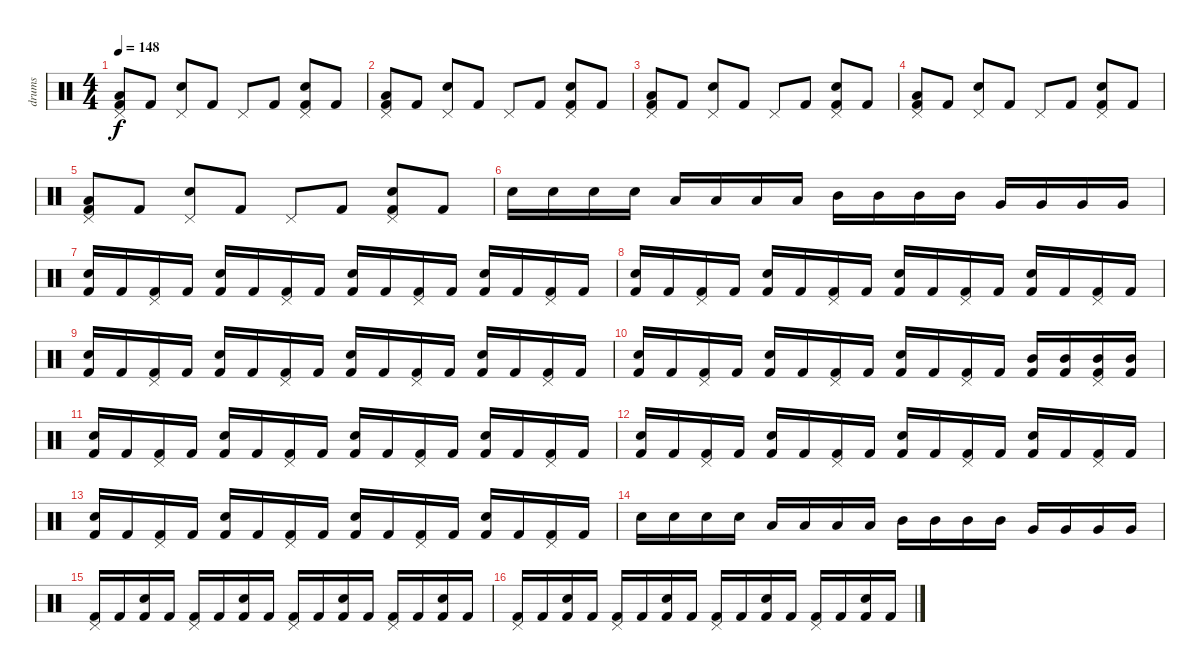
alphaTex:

\track ("drums" "drums") {instrument percussion}
\staff {score}
\articulation defaults
\ts (4 4)
\tempo 148
\clef neutral
\ks c
("Pedal Hi-Hat (hit)" "Low Floor Tom (hit)" "Kick (hit) 2").8{dy f} "Kick (hit) 2".8 ("Pedal Hi-Hat (hit)" "Snare (hit) 2").8 "Kick (hit) 2".8 "Pedal Hi-Hat (hit)".8 "Kick (hit) 2".8 ("Pedal Hi-Hat (hit)" "Snare (hit) 2" "Kick (hit) 2").8 "Kick (hit) 2".8 |
("Pedal Hi-Hat (hit)" "Low Floor Tom (hit)" "Kick (hit) 2").8 "Kick (hit) 2".8 ("Pedal Hi-Hat (hit)" "Snare (hit) 2").8 "Kick (hit) 2".8 "Pedal Hi-Hat (hit)".8 "Kick (hit) 2".8 ("Pedal Hi-Hat (hit)" "Snare (hit) 2" "Kick (hit) 2").8 "Kick (hit) 2".8 |
("Pedal Hi-Hat (hit)" "Low Floor Tom (hit)" "Kick (hit) 2").8 "Kick (hit) 2".8 ("Pedal Hi-Hat (hit)" "Snare (hit) 2").8 "Kick (hit) 2".8 "Pedal Hi-Hat (hit)".8 "Kick (hit) 2".8 ("Pedal Hi-Hat (hit)" "Snare (hit) 2" "Kick (hit) 2").8 "Kick (hit) 2".8 |
("Pedal Hi-Hat (hit)" "Low Floor Tom (hit)" "Kick (hit) 2").8 "Kick (hit) 2".8 ("Pedal Hi-Hat (hit)" "Snare (hit) 2").8 "Kick (hit) 2".8 "Pedal Hi-Hat (hit)".8 "Kick (hit) 2".8 ("Pedal Hi-Hat (hit)" "Snare (hit) 2" "Kick (hit) 2").8 "Kick (hit) 2".8 |
("Pedal Hi-Hat (hit)" "Low Floor Tom (hit)" "Kick (hit) 2").8 "Kick (hit) 2".8 ("Pedal Hi-Hat (hit)" "Snare (hit) 2").8 "Kick (hit) 2".8 "Pedal Hi-Hat (hit)".8 "Kick (hit) 2".8 ("Pedal Hi-Hat (hit)" "Snare (hit) 2" "Kick (hit) 2").8 "Kick (hit) 2".8 |
"Snare (hit) 2".16 "Snare (hit) 2".16 "Snare (hit) 2".16 "Snare (hit) 2".16 "Low Tom (hit)".16 "Low Tom (hit)".16 "Low Tom (hit)".16 "Low Tom (hit)".16 "Mid Tom (hit)".16 "Mid Tom (hit)".16 "Mid Tom (hit)".16 "Mid Tom (hit)".16 "Very Low Tom (hit)".16 "Very Low Tom (hit)".16 "Very Low Tom (hit)".16 "Very Low Tom (hit)".16 |
("Snare (hit) 2" "Kick (hit) 2").16 "Kick (hit) 2".16 ("Pedal Hi-Hat (hit)" "Kick (hit) 2").16 "Kick (hit) 2".16 ("Electric Snare (hit)" "Kick (hit) 2").16 "Kick (hit) 2".16 ("Pedal Hi-Hat (hit)" "Kick (hit) 2").16 "Kick (hit) 2".16 ("Snare (hit) 2" "Kick (hit) 2").16 "Kick (hit) 2".16 ("Pedal Hi-Hat (hit)" "Kick (hit) 2").16 "Kick (hit) 2".16 ("Electric Snare (hit)" "Kick (hit) 2").16 "Kick (hit) 2".16 ("Pedal Hi-Hat (hit)" "Kick (hit) 2").16 "Kick (hit) 2".16 |
("Snare (hit) 2" "Kick (hit) 2").16 "Kick (hit) 2".16 ("Pedal Hi-Hat (hit)" "Kick (hit) 2").16 "Kick (hit) 2".16 ("Electric Snare (hit)" "Kick (hit) 2").16 "Kick (hit) 2".16 ("Pedal Hi-Hat (hit)" "Kick (hit) 2").16 "Kick (hit) 2".16 ("Snare (hit) 2" "Kick (hit) 2").16 "Kick (hit) 2".16 ("Pedal Hi-Hat (hit)" "Kick (hit) 2").16 "Kick (hit) 2".16 ("Electric Snare (hit)" "Kick (hit) 2").16 "Kick (hit) 2".16 ("Pedal Hi-Hat (hit)" "Kick (hit) 2").16 "Kick (hit) 2".16 |
("Snare (hit) 2" "Kick (hit) 2").16 "Kick (hit) 2".16 ("Pedal Hi-Hat (hit)" "Kick (hit) 2").16 "Kick (hit) 2".16 ("Electric Snare (hit)" "Kick (hit) 2").16 "Kick (hit) 2".16 ("Pedal Hi-Hat (hit)" "Kick (hit) 2").16 "Kick (hit) 2".16 ("Snare (hit) 2" "Kick (hit) 2").16 "Kick (hit) 2".16 ("Pedal Hi-Hat (hit)" "Kick (hit) 2").16 "Kick (hit) 2".16 ("Electric Snare (hit)" "Kick (hit) 2").16 "Kick (hit) 2".16 ("Pedal Hi-Hat (hit)" "Kick (hit) 2").16 "Kick (hit) 2".16 |
("Snare (hit) 2" "Kick (hit) 2").16 "Kick (hit) 2".16 ("Pedal Hi-Hat (hit)" "Kick (hit) 2").16 "Kick (hit) 2".16 ("Electric Snare (hit)" "Kick (hit) 2").16 "Kick (hit) 2".16 ("Pedal Hi-Hat (hit)" "Kick (hit) 2").16 "Kick (hit) 2".16 ("Snare (hit) 2" "Kick (hit) 2").16 "Kick (hit) 2".16 ("Pedal Hi-Hat (hit)" "Kick (hit) 2").16 "Kick (hit) 2".16 ("Mid Tom (hit)" "Kick (hit) 2").16 ("Mid Tom (hit)" "Kick (hit) 2").16 ("Pedal Hi-Hat (hit)" "Mid Tom (hit)" "Kick (hit) 2").16 ("Mid Tom (hit)" "Kick (hit) 2").16 |
("Snare (hit) 2" "Kick (hit) 2").16 "Kick (hit) 2".16 ("Pedal Hi-Hat (hit)" "Kick (hit) 2").16 "Kick (hit) 2".16 ("Electric Snare (hit)" "Kick (hit) 2").16 "Kick (hit) 2".16 ("Pedal Hi-Hat (hit)" "Kick (hit) 2").16 "Kick (hit) 2".16 ("Snare (hit) 2" "Kick (hit) 2").16 "Kick (hit) 2".16 ("Pedal Hi-Hat (hit)" "Kick (hit) 2").16 "Kick (hit) 2".16 ("Electric Snare (hit)" "Kick (hit) 2").16 "Kick (hit) 2".16 ("Pedal Hi-Hat (hit)" "Kick (hit) 2").16 "Kick (hit) 2".16 |
("Snare (hit) 2" "Kick (hit) 2").16 "Kick (hit) 2".16 ("Pedal Hi-Hat (hit)" "Kick (hit) 2").16 "Kick (hit) 2".16 ("Electric Snare (hit)" "Kick (hit) 2").16 "Kick (hit) 2".16 ("Pedal Hi-Hat (hit)" "Kick (hit) 2").16 "Kick (hit) 2".16 ("Snare (hit) 2" "Kick (hit) 2").16 "Kick (hit) 2".16 ("Pedal Hi-Hat (hit)" "Kick (hit) 2").16 "Kick (hit) 2".16 ("Electric Snare (hit)" "Kick (hit) 2").16 "Kick (hit) 2".16 ("Pedal Hi-Hat (hit)" "Kick (hit) 2").16 "Kick (hit) 2".16 |
("Snare (hit) 2" "Kick (hit) 2").16 "Kick (hit) 2".16 ("Pedal Hi-Hat (hit)" "Kick (hit) 2").16 "Kick (hit) 2".16 ("Electric Snare (hit)" "Kick (hit) 2").16 "Kick (hit) 2".16 ("Pedal Hi-Hat (hit)" "Kick (hit) 2").16 "Kick (hit) 2".16 ("Snare (hit) 2" "Kick (hit) 2").16 "Kick (hit) 2".16 ("Pedal Hi-Hat (hit)" "Kick (hit) 2").16 "Kick (hit) 2".16 ("Electric Snare (hit)" "Kick (hit) 2").16 "Kick (hit) 2".16 ("Pedal Hi-Hat (hit)" "Kick (hit) 2").16 "Kick (hit) 2".16 |
"Snare (hit) 2".16 "Snare (hit) 2".16 "Snare (hit) 2".16 "Snare (hit) 2".16 "Low Tom (hit)".16 "Low Tom (hit)".16 "Low Tom (hit)".16 "Low Tom (hit)".16 "Mid Tom (hit)".16 "Mid Tom (hit)".16 "Mid Tom (hit)".16 "Mid Tom (hit)".16 "Very Low Tom (hit)".16 "Very Low Tom (hit)".16 "Very Low Tom (hit)".16 "Very Low Tom (hit)".16 |
("Pedal Hi-Hat (hit)" "Kick (hit) 2").16 "Kick (hit) 2".16 ("Electric Snare (hit)" "Kick (hit) 2").16 "Kick (hit) 2".16 ("Pedal Hi-Hat (hit)" "Kick (hit) 2").16 "Kick (hit) 2".16 ("Electric Snare (hit)" "Kick (hit) 2").16 "Kick (hit) 2".16 ("Pedal Hi-Hat (hit)" "Kick (hit) 2").16 "Kick (hit) 2".16 ("Electric Snare (hit)" "Kick (hit) 2").16 "Kick (hit) 2".16 ("Pedal Hi-Hat (hit)" "Kick (hit) 2").16 "Kick (hit) 2".16 ("Electric Snare (hit)" "Kick (hit) 2").16 "Kick (hit) 2".16 |
("Pedal Hi-Hat (hit)" "Kick (hit) 2").16 "Kick (hit) 2".16 ("Electric Snare (hit)" "Kick (hit) 2").16 "Kick (hit) 2".16 ("Pedal Hi-Hat (hit)" "Kick (hit) 2").16 "Kick (hit) 2".16 ("Electric Snare (hit)" "Kick (hit) 2").16 "Kick (hit) 2".16 ("Pedal Hi-Hat (hit)" "Kick (hit) 2").16 "Kick (hit) 2".16 ("Electric Snare (hit)" "Kick (hit) 2").16 "Kick (hit) 2".16 ("Pedal Hi-Hat (hit)" "Kick (hit) 2").16 "Kick (hit) 2".16 ("Electric Snare (hit)" "Kick (hit) 2").16 "Kick (hit) 2".16
